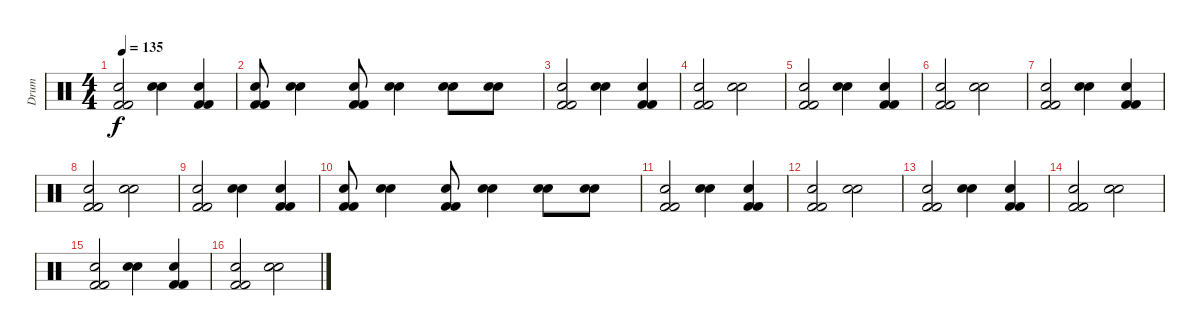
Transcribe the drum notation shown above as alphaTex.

\track ("Drum" "Drum") {instrument percussion}
\staff {score}
\articulation defaults
\ts (4 4)
\tempo 135
\clef neutral
\ks c
("Electric Snare (hit)" "Kick (hit) 2" "Kick (hit) 2").2{dy f} ("Electric Snare (hit)" "Electric Snare (hit)").4 ("Electric Snare (hit)" "Kick (hit) 2" "Kick (hit) 2").4 |
("Electric Snare (hit)" "Kick (hit) 2" "Kick (hit) 2").8 ("Electric Snare (hit)" "Electric Snare (hit)").4 ("Electric Snare (hit)" "Kick (hit) 2" "Kick (hit) 2").8 ("Electric Snare (hit)" "Electric Snare (hit)").4 ("Electric Snare (hit)" "Electric Snare (hit)").8 ("Electric Snare (hit)" "Electric Snare (hit)").8 |
("Electric Snare (hit)" "Kick (hit) 2" "Kick (hit) 2").2 ("Electric Snare (hit)" "Electric Snare (hit)").4 ("Electric Snare (hit)" "Kick (hit) 2" "Kick (hit) 2").4 |
("Electric Snare (hit)" "Kick (hit) 2" "Kick (hit) 2").2 ("Electric Snare (hit)" "Electric Snare (hit)").2 |
("Electric Snare (hit)" "Kick (hit) 2" "Kick (hit) 2").2 ("Electric Snare (hit)" "Electric Snare (hit)").4 ("Electric Snare (hit)" "Kick (hit) 2" "Kick (hit) 2").4 |
("Electric Snare (hit)" "Kick (hit) 2" "Kick (hit) 2").2 ("Electric Snare (hit)" "Electric Snare (hit)").2 |
("Electric Snare (hit)" "Kick (hit) 2" "Kick (hit) 2").2 ("Electric Snare (hit)" "Electric Snare (hit)").4 ("Electric Snare (hit)" "Kick (hit) 2" "Kick (hit) 2").4 |
("Electric Snare (hit)" "Kick (hit) 2" "Kick (hit) 2").2 ("Electric Snare (hit)" "Electric Snare (hit)").2 |
("Electric Snare (hit)" "Kick (hit) 2" "Kick (hit) 2").2{volume 8} ("Electric Snare (hit)" "Electric Snare (hit)").4 ("Electric Snare (hit)" "Kick (hit) 2" "Kick (hit) 2").4 |
("Electric Snare (hit)" "Kick (hit) 2" "Kick (hit) 2").8 ("Electric Snare (hit)" "Electric Snare (hit)").4 ("Electric Snare (hit)" "Kick (hit) 2" "Kick (hit) 2").8 ("Electric Snare (hit)" "Electric Snare (hit)").4 ("Electric Snare (hit)" "Electric Snare (hit)").8 ("Electric Snare (hit)" "Electric Snare (hit)").8 |
("Electric Snare (hit)" "Kick (hit) 2" "Kick (hit) 2").2{volume 6} ("Electric Snare (hit)" "Electric Snare (hit)").4 ("Electric Snare (hit)" "Kick (hit) 2" "Kick (hit) 2").4 |
("Electric Snare (hit)" "Kick (hit) 2" "Kick (hit) 2").2{volume 4} ("Electric Snare (hit)" "Electric Snare (hit)").2 |
("Electric Snare (hit)" "Kick (hit) 2" "Kick (hit) 2").2 ("Electric Snare (hit)" "Electric Snare (hit)").4 ("Electric Snare (hit)" "Kick (hit) 2" "Kick (hit) 2").4 |
("Electric Snare (hit)" "Kick (hit) 2" "Kick (hit) 2").2 ("Electric Snare (hit)" "Electric Snare (hit)").2 |
("Electric Snare (hit)" "Kick (hit) 2" "Kick (hit) 2").2{volume 3} ("Electric Snare (hit)" "Electric Snare (hit)").4 ("Electric Snare (hit)" "Kick (hit) 2" "Kick (hit) 2").4 |
("Electric Snare (hit)" "Kick (hit) 2" "Kick (hit) 2").2 ("Electric Snare (hit)" "Electric Snare (hit)").2
